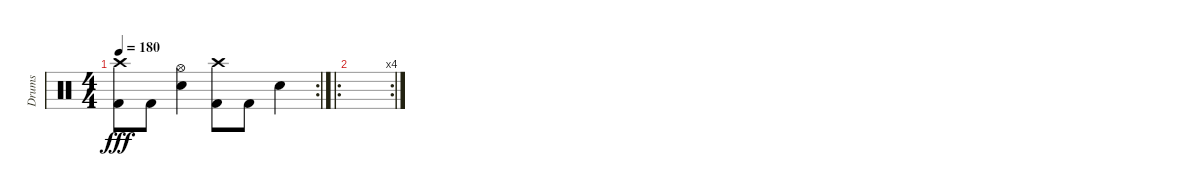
\track ("Drums" "Drums") {instrument percussion}
\staff {score}
\articulation defaults
\rc 2
\ts (4 4)
\tempo 180
\clef neutral
\ks c
("Crash high (hit)" "Kick (hit) 2").8{dy fff} "Kick (hit) 2".8 ("Hi-Hat (open)" "Electric Snare (hit)").4 ("Crash high (hit)" "Kick (hit) 2").8 "Kick (hit) 2".8 "Electric Snare (hit)".4 |
\ro
\rc 4
